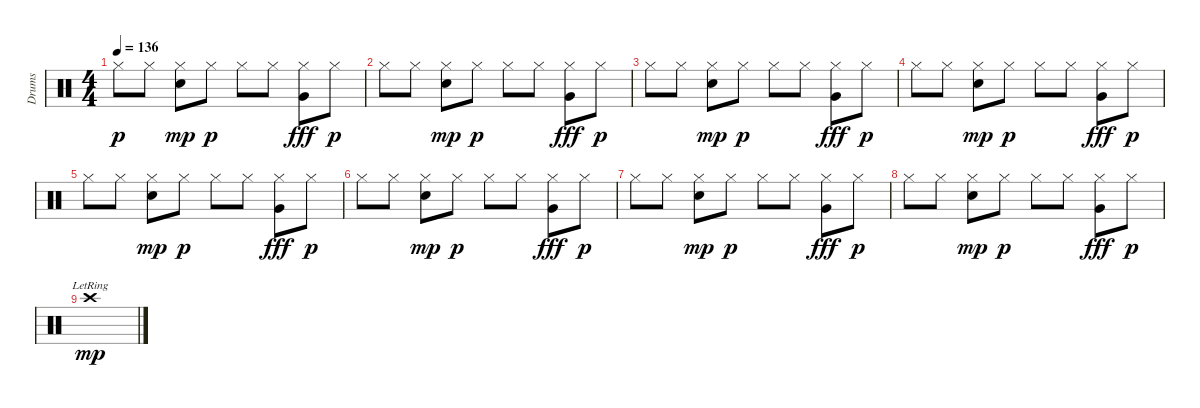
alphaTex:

\track ("Drums" "Drums") {instrument percussion}
\staff {score}
\articulation defaults
\ts (4 4)
\tempo 136
\clef neutral
\ks c "Hi-Hat (closed)".8{dy p} "Hi-Hat (closed)".8
("Hi-Hat (closed)" "Electric Snare (hit)").8{dy mp} "Hi-Hat (closed)".8{dy p} "Hi-Hat (closed)".8 "Hi-Hat (closed)".8 ("Hi-Hat (closed)" "Very Low Tom (hit)").8{dy fff} "Hi-Hat (closed)".8{dy p} |
"Hi-Hat (closed)".8 "Hi-Hat (closed)".8 ("Hi-Hat (closed)" "Electric Snare (hit)").8{dy mp} "Hi-Hat (closed)".8{dy p} "Hi-Hat (closed)".8 "Hi-Hat (closed)".8 ("Hi-Hat (closed)" "Very Low Tom (hit)").8{dy fff} "Hi-Hat (closed)".8{dy p} |
"Hi-Hat (closed)".8 "Hi-Hat (closed)".8 ("Hi-Hat (closed)" "Electric Snare (hit)").8{dy mp} "Hi-Hat (closed)".8{dy p} "Hi-Hat (closed)".8 "Hi-Hat (closed)".8 ("Hi-Hat (closed)" "Very Low Tom (hit)").8{dy fff} "Hi-Hat (closed)".8{dy p} |
"Hi-Hat (closed)".8 "Hi-Hat (closed)".8 ("Hi-Hat (closed)" "Electric Snare (hit)").8{dy mp} "Hi-Hat (closed)".8{dy p} "Hi-Hat (closed)".8 "Hi-Hat (closed)".8 ("Hi-Hat (closed)" "Very Low Tom (hit)").8{dy fff} "Hi-Hat (closed)".8{dy p} |
"Hi-Hat (closed)".8 "Hi-Hat (closed)".8 ("Hi-Hat (closed)" "Electric Snare (hit)").8{dy mp} "Hi-Hat (closed)".8{dy p} "Hi-Hat (closed)".8 "Hi-Hat (closed)".8 ("Hi-Hat (closed)" "Very Low Tom (hit)").8{dy fff} "Hi-Hat (closed)".8{dy p} |
"Hi-Hat (closed)".8 "Hi-Hat (closed)".8 ("Hi-Hat (closed)" "Electric Snare (hit)").8{dy mp} "Hi-Hat (closed)".8{dy p} "Hi-Hat (closed)".8 "Hi-Hat (closed)".8 ("Hi-Hat (closed)" "Very Low Tom (hit)").8{dy fff} "Hi-Hat (closed)".8{dy p} |
"Hi-Hat (closed)".8 "Hi-Hat (closed)".8 ("Hi-Hat (closed)" "Electric Snare (hit)").8{dy mp} "Hi-Hat (closed)".8{dy p} "Hi-Hat (closed)".8 "Hi-Hat (closed)".8 ("Hi-Hat (closed)" "Very Low Tom (hit)").8{dy fff} "Hi-Hat (closed)".8{dy p} |
"Hi-Hat (closed)".8 "Hi-Hat (closed)".8 ("Hi-Hat (closed)" "Electric Snare (hit)").8{dy mp} "Hi-Hat (closed)".8{dy p} "Hi-Hat (closed)".8 "Hi-Hat (closed)".8 ("Hi-Hat (closed)" "Very Low Tom (hit)").8{dy fff} "Hi-Hat (closed)".8{dy p} |
"Crash high (hit)"{lr}.1{dy mp}
